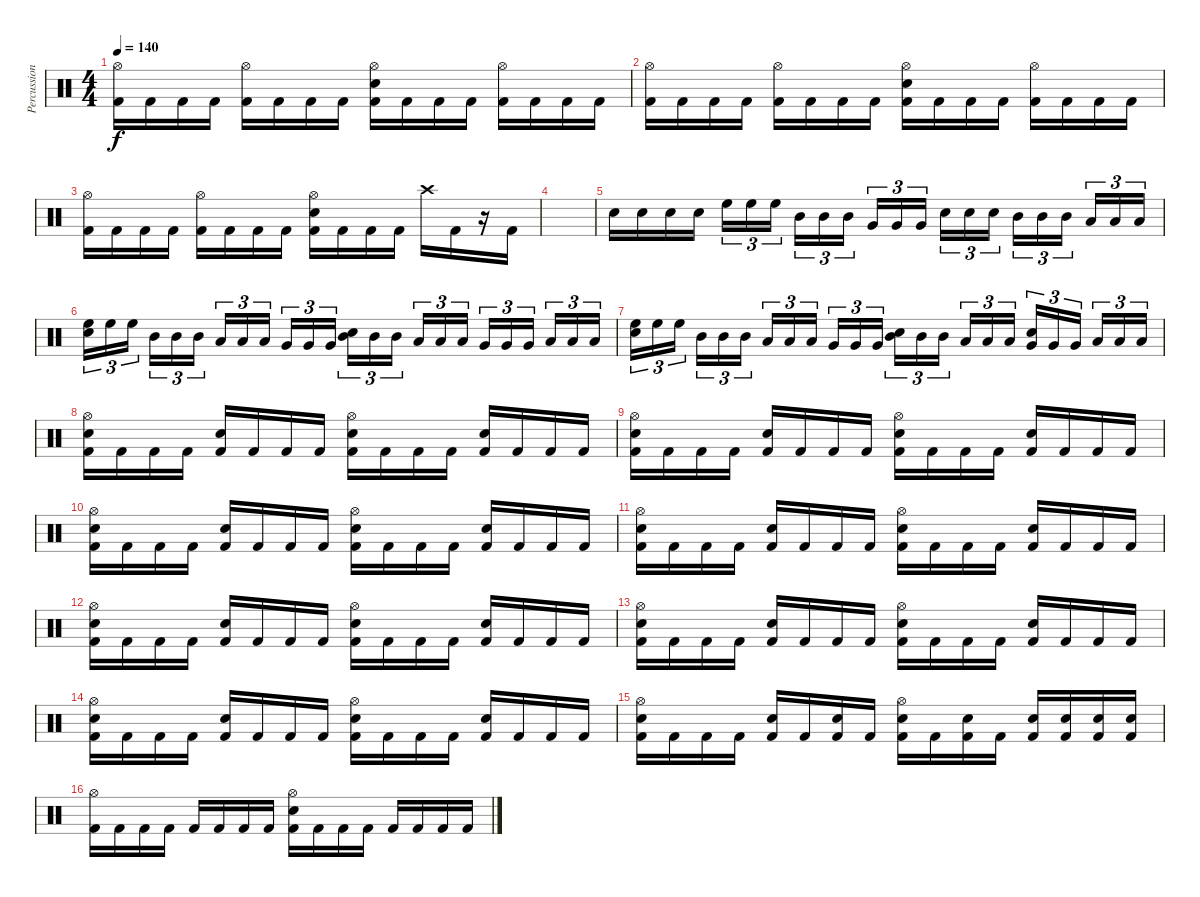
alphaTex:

\track ("Percussion" "Percussion") {instrument percussion}
\staff {score}
\articulation defaults
\ts (4 4)
\tempo 140
\clef neutral
\ks c
("Hi-Hat (open)" "Kick (hit) 2").16{dy f} "Kick (hit) 2".16 "Kick (hit) 2".16 "Kick (hit) 2".16 ("Hi-Hat (open)" "Kick (hit) 2").16 "Kick (hit) 2".16 "Kick (hit) 2".16 "Kick (hit) 2".16 ("Hi-Hat (open)" "Snare (hit) 2" "Kick (hit) 2").16 "Kick (hit) 2".16 "Kick (hit) 2".16 "Kick (hit) 2".16 ("Hi-Hat (open)" "Kick (hit) 2").16 "Kick (hit) 2".16 "Kick (hit) 2".16 "Kick (hit) 2".16 |
("Hi-Hat (open)" "Kick (hit) 2").16 "Kick (hit) 2".16 "Kick (hit) 2".16 "Kick (hit) 2".16 ("Hi-Hat (open)" "Kick (hit) 2").16 "Kick (hit) 2".16 "Kick (hit) 2".16 "Kick (hit) 2".16 ("Hi-Hat (open)" "Snare (hit) 2" "Kick (hit) 2").16 "Kick (hit) 2".16 "Kick (hit) 2".16 "Kick (hit) 2".16 ("Hi-Hat (open)" "Kick (hit) 2").16 "Kick (hit) 2".16 "Kick (hit) 2".16 "Kick (hit) 2".16 |
("Hi-Hat (open)" "Kick (hit) 2").16 "Kick (hit) 2".16 "Kick (hit) 2".16 "Kick (hit) 2".16 ("Hi-Hat (open)" "Kick (hit) 2").16 "Kick (hit) 2".16 "Kick (hit) 2".16 "Kick (hit) 2".16 ("Hi-Hat (open)" "Snare (hit) 2" "Kick (hit) 2").16 "Kick (hit) 2".16 "Kick (hit) 2".16 "Kick (hit) 2".16 "Crash high (hit)".16 "Kick (hit) 2".16 r.16 "Kick (hit) 2".16 |
|
"Snare (hit) 2".16{volume 10} "Snare (hit) 2".16 "Snare (hit) 2".16 "Snare (hit) 2".16 "High Floor Tom (hit)".16{tu (3 2)} "High Floor Tom (hit)".16{tu (3 2)} "High Floor Tom (hit)".16{tu (3 2) beam splitsecondary} "Mid Tom (hit)".16{tu (3 2)} "Mid Tom (hit)".16{tu (3 2)} "Mid Tom (hit)".16{tu (3 2)} "Very Low Tom (hit)".16{tu (3 2)} "Very Low Tom (hit)".16{tu (3 2)} "Very Low Tom (hit)".16{tu (3 2) beam splitsecondary} "Snare (hit) 2".16{tu (3 2)} "Snare (hit) 2".16{tu (3 2)} "Snare (hit) 2".16{tu (3 2)} "Mid Tom (hit)".16{tu (3 2)} "Mid Tom (hit)".16{tu (3 2)} "Mid Tom (hit)".16{tu (3 2) beam splitsecondary} "Low Tom (hit)".16{tu (3 2)} "Low Tom (hit)".16{tu (3 2)} "Low Tom (hit)".16{tu (3 2)} |
("High Floor Tom (hit)" "Snare (hit) 2").16{tu (3 2)} "High Floor Tom (hit)".16{tu (3 2)} "High Floor Tom (hit)".16{tu (3 2) beam splitsecondary} "Mid Tom (hit)".16{tu (3 2)} "Mid Tom (hit)".16{tu (3 2)} "Mid Tom (hit)".16{tu (3 2)} "Low Tom (hit)".16{tu (3 2)} "Low Tom (hit)".16{tu (3 2)} "Low Tom (hit)".16{tu (3 2) beam splitsecondary} "Very Low Tom (hit)".16{tu (3 2)} "Very Low Tom (hit)".16{tu (3 2)} "Very Low Tom (hit)".16{tu (3 2)} ("Mid Tom (hit)" "Snare (hit) 2").16{tu (3 2)} "Mid Tom (hit)".16{tu (3 2)} "Mid Tom (hit)".16{tu (3 2) beam splitsecondary} "Low Tom (hit)".16{tu (3 2)} "Low Tom (hit)".16{tu (3 2)} "Low Tom (hit)".16{tu (3 2)} "Very Low Tom (hit)".16{tu (3 2)} "Very Low Tom (hit)".16{tu (3 2)} "Very Low Tom (hit)".16{tu (3 2) beam splitsecondary} "Low Floor Tom (hit)".16{tu (3 2)} "Low Floor Tom (hit)".16{tu (3 2)} "Low Floor Tom (hit)".16{tu (3 2)} |
("High Floor Tom (hit)" "Snare (hit) 2").16{tu (3 2)} "High Floor Tom (hit)".16{tu (3 2)} "High Floor Tom (hit)".16{tu (3 2) beam splitsecondary} "Mid Tom (hit)".16{tu (3 2)} "Mid Tom (hit)".16{tu (3 2)} "Mid Tom (hit)".16{tu (3 2)} "Low Tom (hit)".16{tu (3 2)} "Low Tom (hit)".16{tu (3 2)} "Low Tom (hit)".16{tu (3 2) beam splitsecondary} "Very Low Tom (hit)".16{tu (3 2)} "Very Low Tom (hit)".16{tu (3 2)} "Very Low Tom (hit)".16{tu (3 2)} ("Mid Tom (hit)" "Snare (hit) 2").16{tu (3 2)} "Mid Tom (hit)".16{tu (3 2)} "Mid Tom (hit)".16{tu (3 2) beam splitsecondary} "Low Tom (hit)".16{tu (3 2)} "Low Tom (hit)".16{tu (3 2)} "Low Tom (hit)".16{tu (3 2)} ("Very Low Tom (hit)" "Snare (hit) 2").16{tu (3 2)} "Very Low Tom (hit)".16{tu (3 2)} "Very Low Tom (hit)".16{tu (3 2) beam splitsecondary} "Low Floor Tom (hit)".16{tu (3 2)} "Low Floor Tom (hit)".16{tu (3 2)} "Low Floor Tom (hit)".16{tu (3 2)} |
("Hi-Hat (open)" "Snare (hit) 2" "Kick (hit) 2").16{volume 16} "Kick (hit) 2".16 "Kick (hit) 2".16 "Kick (hit) 2".16 ("Snare (hit) 2" "Kick (hit) 2").16 "Kick (hit) 2".16 "Kick (hit) 2".16 "Kick (hit) 2".16 ("Hi-Hat (open)" "Snare (hit) 2" "Kick (hit) 2").16 "Kick (hit) 2".16 "Kick (hit) 2".16 "Kick (hit) 2".16 ("Snare (hit) 2" "Kick (hit) 2").16 "Kick (hit) 2".16 "Kick (hit) 2".16 "Kick (hit) 2".16 |
("Hi-Hat (open)" "Snare (hit) 2" "Kick (hit) 2").16 "Kick (hit) 2".16 "Kick (hit) 2".16 "Kick (hit) 2".16 ("Snare (hit) 2" "Kick (hit) 2").16 "Kick (hit) 2".16 "Kick (hit) 2".16 "Kick (hit) 2".16 ("Hi-Hat (open)" "Snare (hit) 2" "Kick (hit) 2").16 "Kick (hit) 2".16 "Kick (hit) 2".16 "Kick (hit) 2".16 ("Snare (hit) 2" "Kick (hit) 2").16 "Kick (hit) 2".16 "Kick (hit) 2".16 "Kick (hit) 2".16 |
("Hi-Hat (open)" "Snare (hit) 2" "Kick (hit) 2").16 "Kick (hit) 2".16 "Kick (hit) 2".16 "Kick (hit) 2".16 ("Snare (hit) 2" "Kick (hit) 2").16 "Kick (hit) 2".16 "Kick (hit) 2".16 "Kick (hit) 2".16 ("Hi-Hat (open)" "Snare (hit) 2" "Kick (hit) 2").16 "Kick (hit) 2".16 "Kick (hit) 2".16 "Kick (hit) 2".16 ("Snare (hit) 2" "Kick (hit) 2").16 "Kick (hit) 2".16 "Kick (hit) 2".16 "Kick (hit) 2".16 |
("Hi-Hat (open)" "Snare (hit) 2" "Kick (hit) 2").16 "Kick (hit) 2".16 "Kick (hit) 2".16 "Kick (hit) 2".16 ("Snare (hit) 2" "Kick (hit) 2").16 "Kick (hit) 2".16 "Kick (hit) 2".16 "Kick (hit) 2".16 ("Hi-Hat (open)" "Snare (hit) 2" "Kick (hit) 2").16 "Kick (hit) 2".16 "Kick (hit) 2".16 "Kick (hit) 2".16 ("Snare (hit) 2" "Kick (hit) 2").16 "Kick (hit) 2".16 "Kick (hit) 2".16 "Kick (hit) 2".16 |
("Hi-Hat (open)" "Snare (hit) 2" "Kick (hit) 2").16 "Kick (hit) 2".16 "Kick (hit) 2".16 "Kick (hit) 2".16 ("Snare (hit) 2" "Kick (hit) 2").16 "Kick (hit) 2".16 "Kick (hit) 2".16 "Kick (hit) 2".16 ("Hi-Hat (open)" "Snare (hit) 2" "Kick (hit) 2").16 "Kick (hit) 2".16 "Kick (hit) 2".16 "Kick (hit) 2".16 ("Snare (hit) 2" "Kick (hit) 2").16 "Kick (hit) 2".16 "Kick (hit) 2".16 "Kick (hit) 2".16 |
("Hi-Hat (open)" "Snare (hit) 2" "Kick (hit) 2").16 "Kick (hit) 2".16 "Kick (hit) 2".16 "Kick (hit) 2".16 ("Snare (hit) 2" "Kick (hit) 2").16 "Kick (hit) 2".16 "Kick (hit) 2".16 "Kick (hit) 2".16 ("Hi-Hat (open)" "Snare (hit) 2" "Kick (hit) 2").16 "Kick (hit) 2".16 "Kick (hit) 2".16 "Kick (hit) 2".16 ("Snare (hit) 2" "Kick (hit) 2").16 "Kick (hit) 2".16 "Kick (hit) 2".16 "Kick (hit) 2".16 |
("Hi-Hat (open)" "Snare (hit) 2" "Kick (hit) 2").16 "Kick (hit) 2".16 "Kick (hit) 2".16 "Kick (hit) 2".16 ("Snare (hit) 2" "Kick (hit) 2").16 "Kick (hit) 2".16 "Kick (hit) 2".16 "Kick (hit) 2".16 ("Hi-Hat (open)" "Snare (hit) 2" "Kick (hit) 2").16 "Kick (hit) 2".16 "Kick (hit) 2".16 "Kick (hit) 2".16 ("Snare (hit) 2" "Kick (hit) 2").16 "Kick (hit) 2".16 "Kick (hit) 2".16 "Kick (hit) 2".16 |
("Hi-Hat (open)" "Snare (hit) 2" "Kick (hit) 2").16 "Kick (hit) 2".16 "Kick (hit) 2".16 "Kick (hit) 2".16 ("Snare (hit) 2" "Kick (hit) 2").16 "Kick (hit) 2".16 ("Snare (hit) 2" "Kick (hit) 2").16 "Kick (hit) 2".16 ("Hi-Hat (open)" "Snare (hit) 2" "Kick (hit) 2").16 "Kick (hit) 2".16 ("Snare (hit) 2" "Kick (hit) 2").16 "Kick (hit) 2".16 ("Snare (hit) 2" "Kick (hit) 2").16 ("Snare (hit) 2" "Kick (hit) 2").16 ("Snare (hit) 2" "Kick (hit) 2").16 ("Snare (hit) 2" "Kick (hit) 2").16 |
("Hi-Hat (open)" "Kick (hit) 2").16 "Kick (hit) 2".16 "Kick (hit) 2".16 "Kick (hit) 2".16 "Kick (hit) 2".16 "Kick (hit) 2".16 "Kick (hit) 2".16 "Kick (hit) 2".16 ("Hi-Hat (open)" "Snare (hit) 2" "Kick (hit) 2").16 "Kick (hit) 2".16 "Kick (hit) 2".16 "Kick (hit) 2".16 "Kick (hit) 2".16 "Kick (hit) 2".16 "Kick (hit) 2".16 "Kick (hit) 2".16
